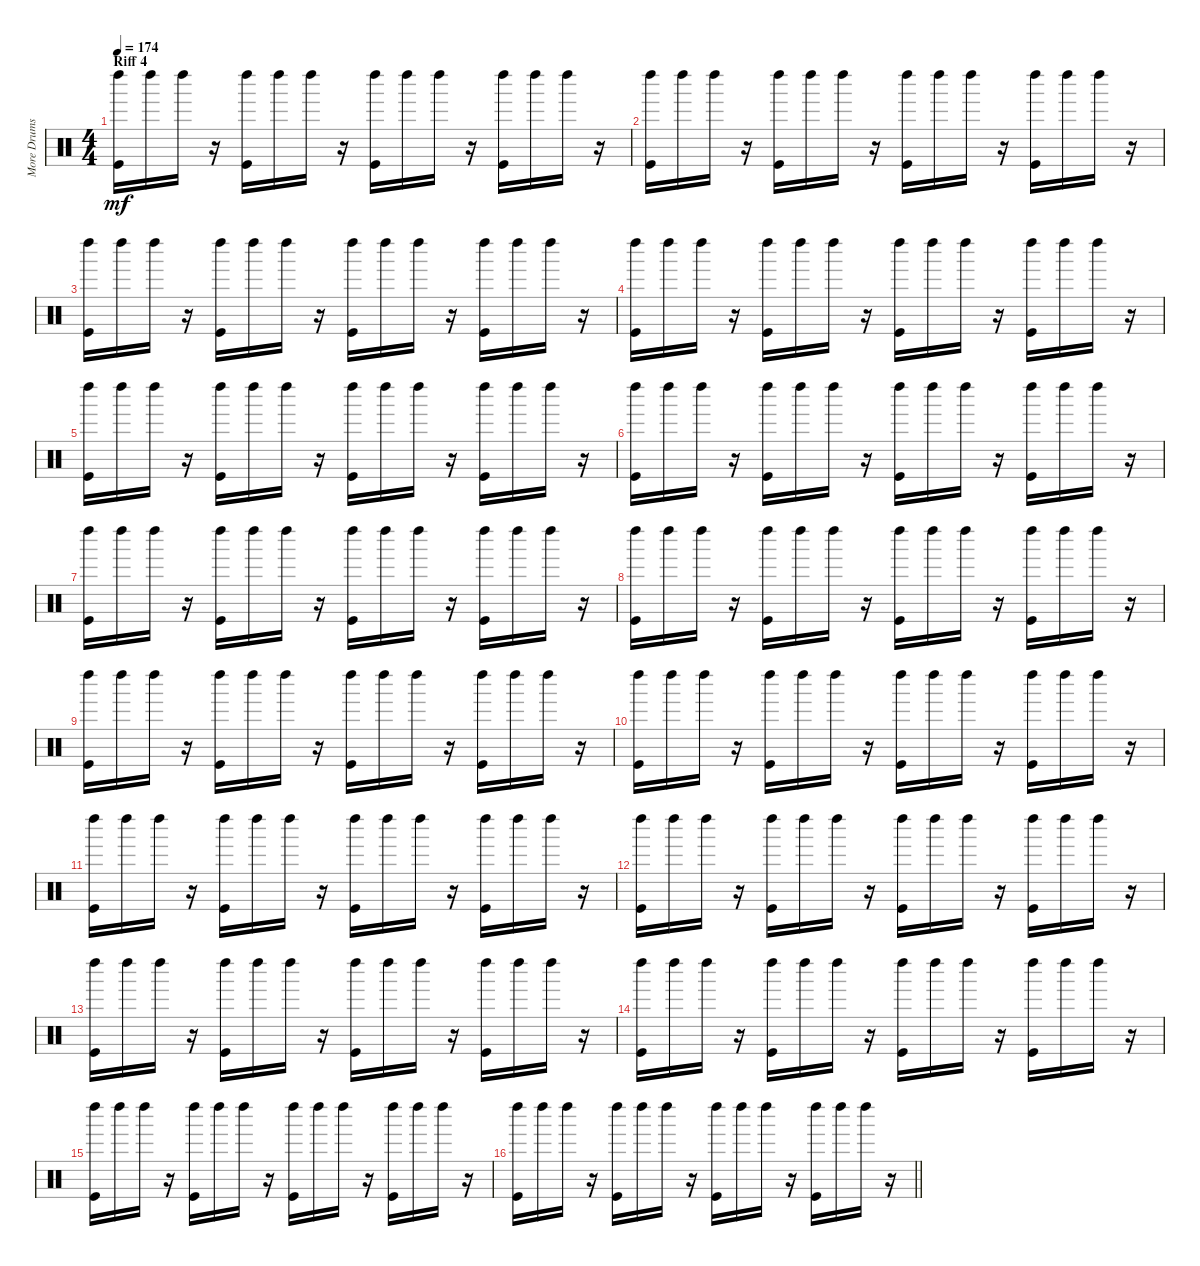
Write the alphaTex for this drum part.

\track ("More Drums" "More Drums") {instrument percussion}
\staff {score}
\articulation defaults
\ts (4 4)
\section ("" "Riff 4")
\tempo 174
\clef neutral
\ks c
("Kick (hit)" "Left Maraca (hit)").16{dy mf} "Left Maraca (hit)".16 "Left Maraca (hit)".16 r.16 ("Kick (hit)" "Left Maraca (hit)").16 "Left Maraca (hit)".16 "Left Maraca (hit)".16 r.16 ("Kick (hit)" "Left Maraca (hit)").16 "Left Maraca (hit)".16 "Left Maraca (hit)".16 r.16 ("Kick (hit)" "Left Maraca (hit)").16 "Left Maraca (hit)".16 "Left Maraca (hit)".16 r.16 |
("Kick (hit)" "Left Maraca (hit)").16 "Left Maraca (hit)".16 "Left Maraca (hit)".16 r.16 ("Kick (hit)" "Left Maraca (hit)").16 "Left Maraca (hit)".16 "Left Maraca (hit)".16 r.16 ("Kick (hit)" "Left Maraca (hit)").16 "Left Maraca (hit)".16 "Left Maraca (hit)".16 r.16 ("Kick (hit)" "Left Maraca (hit)").16 "Left Maraca (hit)".16 "Left Maraca (hit)".16 r.16 |
("Kick (hit)" "Left Maraca (hit)").16 "Left Maraca (hit)".16 "Left Maraca (hit)".16 r.16 ("Kick (hit)" "Left Maraca (hit)").16 "Left Maraca (hit)".16 "Left Maraca (hit)".16 r.16 ("Kick (hit)" "Left Maraca (hit)").16 "Left Maraca (hit)".16 "Left Maraca (hit)".16 r.16 ("Kick (hit)" "Left Maraca (hit)").16 "Left Maraca (hit)".16 "Left Maraca (hit)".16 r.16 |
("Kick (hit)" "Left Maraca (hit)").16 "Left Maraca (hit)".16 "Left Maraca (hit)".16 r.16 ("Kick (hit)" "Left Maraca (hit)").16 "Left Maraca (hit)".16 "Left Maraca (hit)".16 r.16 ("Kick (hit)" "Left Maraca (hit)").16 "Left Maraca (hit)".16 "Left Maraca (hit)".16 r.16 ("Kick (hit)" "Left Maraca (hit)").16 "Left Maraca (hit)".16 "Left Maraca (hit)".16 r.16 |
("Kick (hit)" "Left Maraca (hit)").16 "Left Maraca (hit)".16 "Left Maraca (hit)".16 r.16 ("Kick (hit)" "Left Maraca (hit)").16 "Left Maraca (hit)".16 "Left Maraca (hit)".16 r.16 ("Kick (hit)" "Left Maraca (hit)").16 "Left Maraca (hit)".16 "Left Maraca (hit)".16 r.16 ("Kick (hit)" "Left Maraca (hit)").16 "Left Maraca (hit)".16 "Left Maraca (hit)".16 r.16 |
("Kick (hit)" "Left Maraca (hit)").16 "Left Maraca (hit)".16 "Left Maraca (hit)".16 r.16 ("Kick (hit)" "Left Maraca (hit)").16 "Left Maraca (hit)".16 "Left Maraca (hit)".16 r.16 ("Kick (hit)" "Left Maraca (hit)").16 "Left Maraca (hit)".16 "Left Maraca (hit)".16 r.16 ("Kick (hit)" "Left Maraca (hit)").16 "Left Maraca (hit)".16 "Left Maraca (hit)".16 r.16 |
("Kick (hit)" "Left Maraca (hit)").16 "Left Maraca (hit)".16 "Left Maraca (hit)".16 r.16 ("Kick (hit)" "Left Maraca (hit)").16 "Left Maraca (hit)".16 "Left Maraca (hit)".16 r.16 ("Kick (hit)" "Left Maraca (hit)").16 "Left Maraca (hit)".16 "Left Maraca (hit)".16 r.16 ("Kick (hit)" "Left Maraca (hit)").16 "Left Maraca (hit)".16 "Left Maraca (hit)".16 r.16 |
("Kick (hit)" "Left Maraca (hit)").16 "Left Maraca (hit)".16 "Left Maraca (hit)".16 r.16 ("Kick (hit)" "Left Maraca (hit)").16 "Left Maraca (hit)".16 "Left Maraca (hit)".16 r.16 ("Kick (hit)" "Left Maraca (hit)").16 "Left Maraca (hit)".16 "Left Maraca (hit)".16 r.16 ("Kick (hit)" "Left Maraca (hit)").16 "Left Maraca (hit)".16 "Left Maraca (hit)".16 r.16 |
("Kick (hit)" "Left Maraca (hit)").16 "Left Maraca (hit)".16 "Left Maraca (hit)".16 r.16 ("Kick (hit)" "Left Maraca (hit)").16 "Left Maraca (hit)".16 "Left Maraca (hit)".16 r.16 ("Kick (hit)" "Left Maraca (hit)").16 "Left Maraca (hit)".16 "Left Maraca (hit)".16 r.16 ("Kick (hit)" "Left Maraca (hit)").16 "Left Maraca (hit)".16 "Left Maraca (hit)".16 r.16 |
("Kick (hit)" "Left Maraca (hit)").16 "Left Maraca (hit)".16 "Left Maraca (hit)".16 r.16 ("Kick (hit)" "Left Maraca (hit)").16 "Left Maraca (hit)".16 "Left Maraca (hit)".16 r.16 ("Kick (hit)" "Left Maraca (hit)").16 "Left Maraca (hit)".16 "Left Maraca (hit)".16 r.16 ("Kick (hit)" "Left Maraca (hit)").16 "Left Maraca (hit)".16 "Left Maraca (hit)".16 r.16 |
("Kick (hit)" "Left Maraca (hit)").16 "Left Maraca (hit)".16 "Left Maraca (hit)".16 r.16 ("Kick (hit)" "Left Maraca (hit)").16 "Left Maraca (hit)".16 "Left Maraca (hit)".16 r.16 ("Kick (hit)" "Left Maraca (hit)").16 "Left Maraca (hit)".16 "Left Maraca (hit)".16 r.16 ("Kick (hit)" "Left Maraca (hit)").16 "Left Maraca (hit)".16 "Left Maraca (hit)".16 r.16 |
("Kick (hit)" "Left Maraca (hit)").16 "Left Maraca (hit)".16 "Left Maraca (hit)".16 r.16 ("Kick (hit)" "Left Maraca (hit)").16 "Left Maraca (hit)".16 "Left Maraca (hit)".16 r.16 ("Kick (hit)" "Left Maraca (hit)").16 "Left Maraca (hit)".16 "Left Maraca (hit)".16 r.16 ("Kick (hit)" "Left Maraca (hit)").16 "Left Maraca (hit)".16 "Left Maraca (hit)".16 r.16 |
("Kick (hit)" "Left Maraca (hit)").16 "Left Maraca (hit)".16 "Left Maraca (hit)".16 r.16 ("Kick (hit)" "Left Maraca (hit)").16 "Left Maraca (hit)".16 "Left Maraca (hit)".16 r.16 ("Kick (hit)" "Left Maraca (hit)").16 "Left Maraca (hit)".16 "Left Maraca (hit)".16 r.16 ("Kick (hit)" "Left Maraca (hit)").16 "Left Maraca (hit)".16 "Left Maraca (hit)".16 r.16 |
("Kick (hit)" "Left Maraca (hit)").16 "Left Maraca (hit)".16 "Left Maraca (hit)".16 r.16 ("Kick (hit)" "Left Maraca (hit)").16 "Left Maraca (hit)".16 "Left Maraca (hit)".16 r.16 ("Kick (hit)" "Left Maraca (hit)").16 "Left Maraca (hit)".16 "Left Maraca (hit)".16 r.16 ("Kick (hit)" "Left Maraca (hit)").16 "Left Maraca (hit)".16 "Left Maraca (hit)".16 r.16 |
("Kick (hit)" "Left Maraca (hit)").16 "Left Maraca (hit)".16 "Left Maraca (hit)".16 r.16 ("Kick (hit)" "Left Maraca (hit)").16 "Left Maraca (hit)".16 "Left Maraca (hit)".16 r.16 ("Kick (hit)" "Left Maraca (hit)").16 "Left Maraca (hit)".16 "Left Maraca (hit)".16 r.16 ("Kick (hit)" "Left Maraca (hit)").16 "Left Maraca (hit)".16 "Left Maraca (hit)".16 r.16 |
\barLineRight lightlight
("Kick (hit)" "Left Maraca (hit)").16 "Left Maraca (hit)".16 "Left Maraca (hit)".16 r.16 ("Kick (hit)" "Left Maraca (hit)").16 "Left Maraca (hit)".16 "Left Maraca (hit)".16 r.16 ("Kick (hit)" "Left Maraca (hit)").16 "Left Maraca (hit)".16 "Left Maraca (hit)".16 r.16 ("Kick (hit)" "Left Maraca (hit)").16 "Left Maraca (hit)".16 "Left Maraca (hit)".16 r.16
